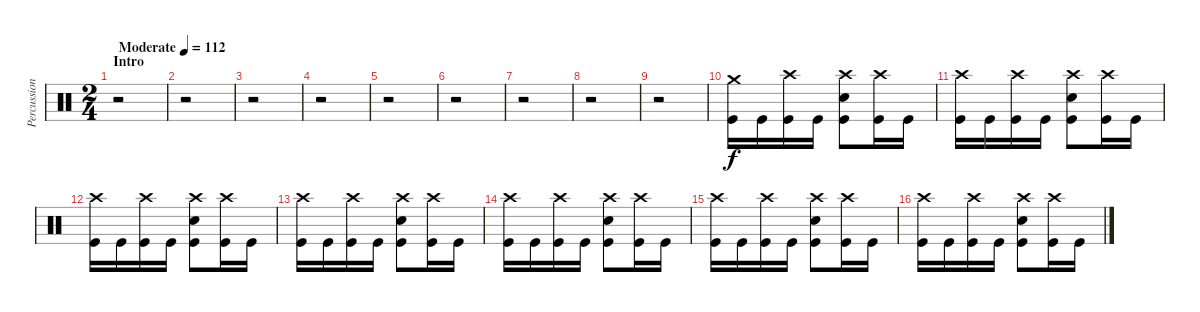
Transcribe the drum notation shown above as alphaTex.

\track ("Percussion" "Percussion") {instrument percussion}
\staff {score}
\articulation defaults
\ts (2 4)
\section ("" "Intro")
\tempo (112 "Moderate")
\clef neutral
\ks c
r.2{dy f} |
r.2 |
r.2 |
r.2 |
r.2 |
r.2 |
r.2 |
r.2 |
r.2 |
("Crash medium (hit)" "Kick (hit)").16 "Kick (hit)".16 ("Crash high (hit)" "Kick (hit)").16 "Kick (hit)".16 ("Crash high (hit)" "Electric Snare (hit)" "Kick (hit)").8 ("Crash high (hit)" "Kick (hit)").16 "Kick (hit)".16 |
("Crash high (hit)" "Kick (hit)").16 "Kick (hit)".16 ("Crash high (hit)" "Kick (hit)").16 "Kick (hit)".16 ("Crash high (hit)" "Electric Snare (hit)" "Kick (hit)").8 ("Crash high (hit)" "Kick (hit)").16 "Kick (hit)".16 |
("Crash high (hit)" "Kick (hit)").16 "Kick (hit)".16 ("Crash high (hit)" "Kick (hit)").16 "Kick (hit)".16 ("Crash high (hit)" "Electric Snare (hit)" "Kick (hit)").8 ("Crash high (hit)" "Kick (hit)").16 "Kick (hit)".16 |
("Crash high (hit)" "Kick (hit)").16 "Kick (hit)".16 ("Crash high (hit)" "Kick (hit)").16 "Kick (hit)".16 ("Crash high (hit)" "Electric Snare (hit)" "Kick (hit)").8 ("Crash high (hit)" "Kick (hit)").16 "Kick (hit)".16 |
("Crash high (hit)" "Kick (hit)").16 "Kick (hit)".16 ("Crash high (hit)" "Kick (hit)").16 "Kick (hit)".16 ("Crash high (hit)" "Electric Snare (hit)" "Kick (hit)").8 ("Crash high (hit)" "Kick (hit)").16 "Kick (hit)".16 |
("Crash high (hit)" "Kick (hit)").16 "Kick (hit)".16 ("Crash high (hit)" "Kick (hit)").16 "Kick (hit)".16 ("Crash high (hit)" "Electric Snare (hit)" "Kick (hit)").8 ("Crash high (hit)" "Kick (hit)").16 "Kick (hit)".16 |
("Crash high (hit)" "Kick (hit)").16 "Kick (hit)".16 ("Crash high (hit)" "Kick (hit)").16 "Kick (hit)".16 ("Crash high (hit)" "Electric Snare (hit)" "Kick (hit)").8 ("Crash high (hit)" "Kick (hit)").16 "Kick (hit)".16
